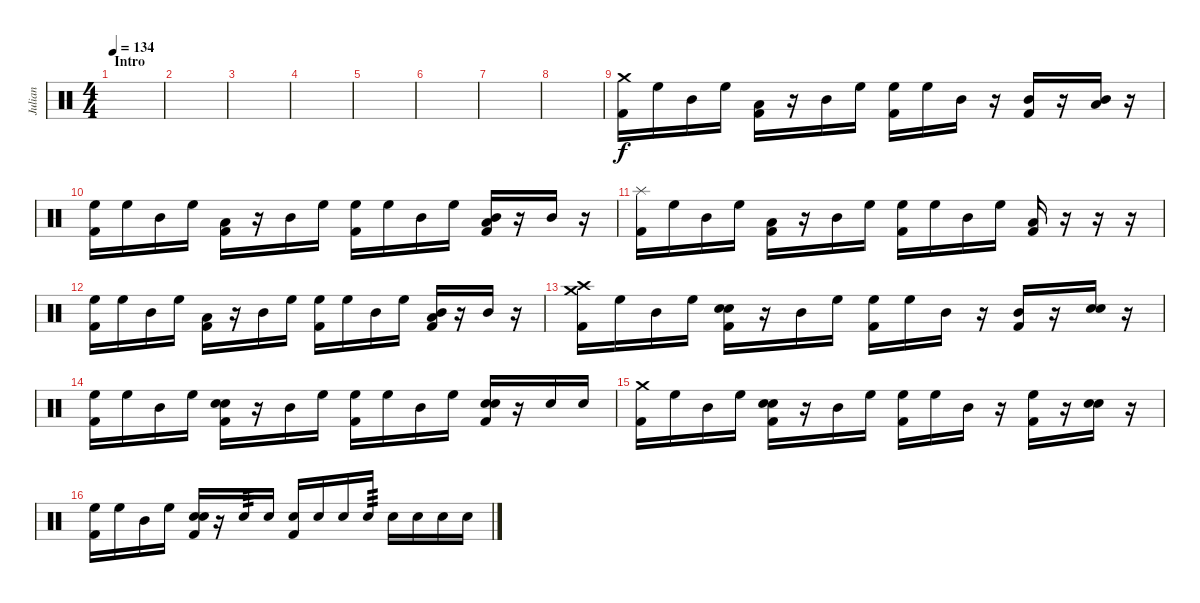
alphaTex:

\track ("Julian" "Julian") {instrument percussion}
\staff {score}
\articulation defaults
\ts (4 4)
\section ("" "Intro")
\tempo 134
\clef neutral
\ks c
|
|
|
|
|
|
|
|
("Crash medium (hit)" "Kick (hit) 2").16 "High Floor Tom (hit)".16 "Mid Tom (hit)".16 "High Floor Tom (hit)".16 ("Low Tom (hit)" "Kick (hit) 2").16 r.16 "Mid Tom (hit)".16 "High Floor Tom (hit)".16 ("High Floor Tom (hit)" "Kick (hit) 2").16 "High Floor Tom (hit)".16 "Mid Tom (hit)".16 r.16 ("Mid Tom (hit)" "Kick (hit) 2").16 r.16 ("Mid Tom (hit)" "Low Tom (hit)").16 r.16 |
("High Floor Tom (hit)" "Kick (hit) 2").16 "High Floor Tom (hit)".16 "Mid Tom (hit)".16 "High Floor Tom (hit)".16 ("Low Tom (hit)" "Kick (hit) 2").16 r.16 "Mid Tom (hit)".16 "High Floor Tom (hit)".16 ("High Floor Tom (hit)" "Kick (hit) 2").16 "High Floor Tom (hit)".16 "Mid Tom (hit)".16 "High Floor Tom (hit)".16 ("Mid Tom (hit)" "Low Tom (hit)" "Kick (hit) 2").16 r.16 "Mid Tom (hit)".16 r.16 |
("Splash (hit)" "Kick (hit) 2").16 "High Floor Tom (hit)".16 "Mid Tom (hit)".16 "High Floor Tom (hit)".16 ("Low Tom (hit)" "Kick (hit) 2").16 r.16 "Mid Tom (hit)".16 "High Floor Tom (hit)".16 ("High Floor Tom (hit)" "Kick (hit) 2").16 "High Floor Tom (hit)".16 "Mid Tom (hit)".16 "High Floor Tom (hit)".16 ("Low Tom (hit)" "Kick (hit) 2").16 r.16 r.16 r.16 |
("High Floor Tom (hit)" "Kick (hit) 2").16 "High Floor Tom (hit)".16 "Mid Tom (hit)".16 "High Floor Tom (hit)".16 ("Low Tom (hit)" "Kick (hit) 2").16 r.16 "Mid Tom (hit)".16 "High Floor Tom (hit)".16 ("High Floor Tom (hit)" "Kick (hit) 2").16 "High Floor Tom (hit)".16 "Mid Tom (hit)".16 "High Floor Tom (hit)".16 ("Mid Tom (hit)" "Low Tom (hit)" "Kick (hit) 2").16 r.16 "Mid Tom (hit)".16 r.16 |
("Crash medium (hit)" "Crash high (hit)" "Kick (hit) 2").16 "High Floor Tom (hit)".16 "Mid Tom (hit)".16 "High Floor Tom (hit)".16 ("Electric Snare (hit)" "Electric Snare (hit)" "Kick (hit) 2").16 r.16 "Mid Tom (hit)".16 "High Floor Tom (hit)".16 ("High Floor Tom (hit)" "Kick (hit) 2").16 "High Floor Tom (hit)".16 "Mid Tom (hit)".16 r.16 ("Mid Tom (hit)" "Kick (hit) 2").16 r.16 ("Electric Snare (hit)" "Electric Snare (hit)").16 r.16 |
("High Floor Tom (hit)" "Kick (hit) 2").16 "High Floor Tom (hit)".16 "Mid Tom (hit)".16 "High Floor Tom (hit)".16 ("Electric Snare (hit)" "Electric Snare (hit)" "Kick (hit) 2").16 r.16 "Mid Tom (hit)".16 "High Floor Tom (hit)".16 ("High Floor Tom (hit)" "Kick (hit) 2").16 "High Floor Tom (hit)".16 "Mid Tom (hit)".16 "High Floor Tom (hit)".16 ("Electric Snare (hit)" "Electric Snare (hit)" "Kick (hit) 2").16 r.16 "Electric Snare (hit)".16 "Electric Snare (hit)".16 |
("Crash medium (hit)" "Kick (hit) 2").16 "High Floor Tom (hit)".16 "Mid Tom (hit)".16 "High Floor Tom (hit)".16 ("Electric Snare (hit)" "Electric Snare (hit)" "Kick (hit) 2").16 r.16 "Mid Tom (hit)".16 "High Floor Tom (hit)".16 ("High Floor Tom (hit)" "Kick (hit) 2").16 "High Floor Tom (hit)".16 "Mid Tom (hit)".16 r.16 ("High Floor Tom (hit)" "Kick (hit) 2").16 r.16 ("Electric Snare (hit)" "Electric Snare (hit)").16 r.16 |
("High Floor Tom (hit)" "Kick (hit) 2").16 "High Floor Tom (hit)".16 "Mid Tom (hit)".16 "High Floor Tom (hit)".16 ("Electric Snare (hit)" "Electric Snare (hit)" "Kick (hit) 2").16 r.16 "Electric Snare (hit)".16{tp 3} "Electric Snare (hit)".16 ("Electric Snare (hit)" "Kick (hit) 2").16 "Electric Snare (hit)".16 "Electric Snare (hit)".16 "Electric Snare (hit)".16{tp 3} "Electric Snare (hit)".16 "Electric Snare (hit)".16 "Electric Snare (hit)".16 "Electric Snare (hit)".16
